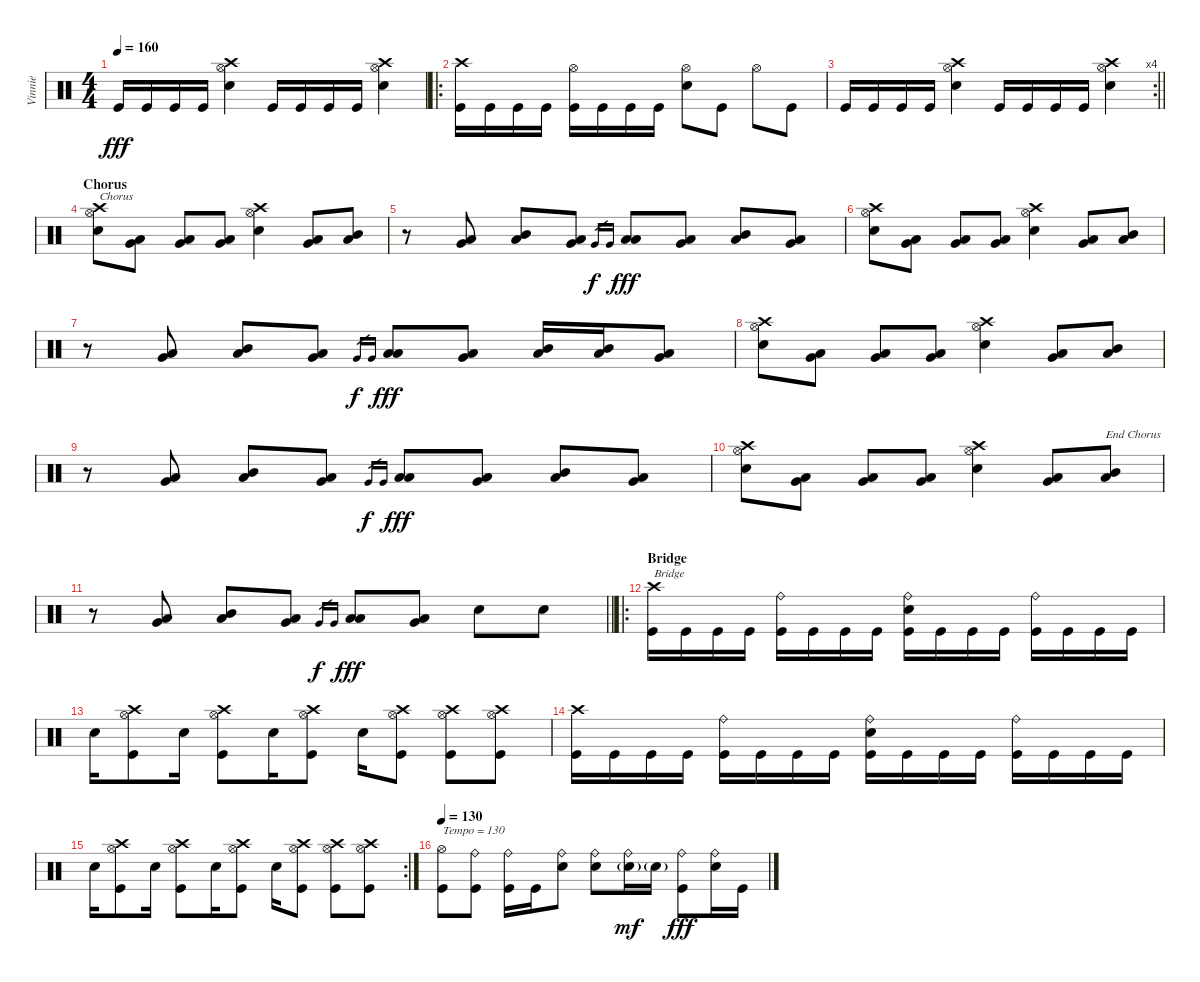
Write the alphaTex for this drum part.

\track ("Vinnie" "Vinnie") {instrument percussion}
\staff {score}
\articulation defaults
\ts (4 4)
\tempo 160
\clef neutral
\ks c "Kick (hit)".16{dy fff} "Kick (hit)".16 "Kick (hit)".16 "Kick (hit)".16
("Electric Snare (hit)" "Crash high (hit)" "Hi-Hat (open)").4 "Kick (hit)".16 "Kick (hit)".16 "Kick (hit)".16 "Kick (hit)".16 ("Electric Snare (hit)" "Crash high (hit)" "Hi-Hat (open)").4 |
\ro
("Kick (hit)" "Crash high (hit)").16 "Kick (hit)".16 "Kick (hit)".16 "Kick (hit)".16 ("Kick (hit)" "Hi-Hat (open)").16 "Kick (hit)".16 "Kick (hit)".16 "Kick (hit)".16 ("Electric Snare (hit)" "Hi-Hat (open)").8 "Kick (hit)".8 "Hi-Hat (open)".8 "Kick (hit)".8 |
\rc 4
\barLineRight lightlight "Kick (hit)".16 "Kick (hit)".16 "Kick (hit)".16 "Kick (hit)".16
("Electric Snare (hit)" "Crash high (hit)" "Hi-Hat (open)").4 "Kick (hit)".16 "Kick (hit)".16 "Kick (hit)".16 "Kick (hit)".16 ("Electric Snare (hit)" "Crash high (hit)" "Hi-Hat (open)").4 |
\section ("" "Chorus")
("Electric Snare (hit)" "Crash high (hit)" "Hi-Hat (open)").8{txt "Chorus"} ("Low Tom (hit)" "Very Low Tom (hit)").8 ("Low Tom (hit)" "Very Low Tom (hit)").8 ("Low Tom (hit)" "Very Low Tom (hit)").8 ("Electric Snare (hit)" "Crash high (hit)" "Hi-Hat (open)").4 ("Low Tom (hit)" "Very Low Tom (hit)").8 ("Mid Tom (hit)" "Low Tom (hit)").8 |
r.8 ("Low Tom (hit)" "Very Low Tom (hit)").8 ("Mid Tom (hit)" "Low Tom (hit)").8 ("Low Tom (hit)" "Very Low Tom (hit)").8 "Very Low Tom (hit)".16{gr dy f} "Very Low Tom (hit)".16{gr} ("Low Tom (hit)" "Low Tom (hit)").8{dy fff} ("Low Tom (hit)" "Very Low Tom (hit)").8 ("Mid Tom (hit)" "Low Tom (hit)").8 ("Low Tom (hit)" "Very Low Tom (hit)").8 |
("Electric Snare (hit)" "Crash high (hit)" "Hi-Hat (open)").8 ("Low Tom (hit)" "Very Low Tom (hit)").8 ("Low Tom (hit)" "Very Low Tom (hit)").8 ("Low Tom (hit)" "Very Low Tom (hit)").8 ("Electric Snare (hit)" "Crash high (hit)" "Hi-Hat (open)").4 ("Low Tom (hit)" "Very Low Tom (hit)").8 ("Mid Tom (hit)" "Low Tom (hit)").8 |
r.8 ("Low Tom (hit)" "Very Low Tom (hit)").8 ("Mid Tom (hit)" "Low Tom (hit)").8 ("Low Tom (hit)" "Very Low Tom (hit)").8 "Very Low Tom (hit)".16{gr dy f} "Very Low Tom (hit)".16{gr} ("Low Tom (hit)" "Low Tom (hit)").8{dy fff} ("Low Tom (hit)" "Very Low Tom (hit)").8 ("Mid Tom (hit)" "Low Tom (hit)").16 ("Mid Tom (hit)" "Low Tom (hit)").16 ("Low Tom (hit)" "Very Low Tom (hit)").8 |
("Electric Snare (hit)" "Crash high (hit)" "Hi-Hat (open)").8 ("Low Tom (hit)" "Very Low Tom (hit)").8 ("Low Tom (hit)" "Very Low Tom (hit)").8 ("Low Tom (hit)" "Very Low Tom (hit)").8 ("Electric Snare (hit)" "Crash high (hit)" "Hi-Hat (open)").4 ("Low Tom (hit)" "Very Low Tom (hit)").8 ("Mid Tom (hit)" "Low Tom (hit)").8 |
r.8 ("Low Tom (hit)" "Very Low Tom (hit)").8 ("Mid Tom (hit)" "Low Tom (hit)").8 ("Low Tom (hit)" "Very Low Tom (hit)").8 "Very Low Tom (hit)".16{gr dy f} "Very Low Tom (hit)".16{gr} ("Low Tom (hit)" "Low Tom (hit)").8{dy fff} ("Low Tom (hit)" "Very Low Tom (hit)").8 ("Mid Tom (hit)" "Low Tom (hit)").8 ("Low Tom (hit)" "Very Low Tom (hit)").8 |
("Electric Snare (hit)" "Crash high (hit)" "Hi-Hat (open)").8 ("Low Tom (hit)" "Very Low Tom (hit)").8 ("Low Tom (hit)" "Very Low Tom (hit)").8 ("Low Tom (hit)" "Very Low Tom (hit)").8 ("Electric Snare (hit)" "Crash high (hit)" "Hi-Hat (open)").4 ("Low Tom (hit)" "Very Low Tom (hit)").8 ("Mid Tom (hit)" "Low Tom (hit)").8{txt "End Chorus"} |
\barLineRight lightlight
r.8 ("Low Tom (hit)" "Very Low Tom (hit)").8 ("Mid Tom (hit)" "Low Tom (hit)").8 ("Low Tom (hit)" "Very Low Tom (hit)").8 "Very Low Tom (hit)".16{gr dy f} "Very Low Tom (hit)".16{gr} ("Low Tom (hit)" "Low Tom (hit)").8{dy fff} ("Low Tom (hit)" "Very Low Tom (hit)").8 "Electric Snare (hit)".8 "Electric Snare (hit)".8 |
\ro
\section ("" "Bridge")
("Kick (hit)" "Crash high (hit)").16{txt "Bridge"} "Kick (hit)".16 "Kick (hit)".16 "Kick (hit)".16 ("Kick (hit)" "Ride (bell)").16 "Kick (hit)".16 "Kick (hit)".16 "Kick (hit)".16 ("Electric Snare (hit)" "Kick (hit)" "Ride (bell)").16 "Kick (hit)".16 "Kick (hit)".16 "Kick (hit)".16 ("Kick (hit)" "Ride (bell)").16 "Kick (hit)".16 "Kick (hit)".16 "Kick (hit)".16 |
"Electric Snare (hit)".16 ("Kick (hit)" "Crash high (hit)" "Hi-Hat (open)").8 "Electric Snare (hit)".16 ("Kick (hit)" "Crash high (hit)" "Hi-Hat (open)").8 "Electric Snare (hit)".16 ("Kick (hit)" "Crash high (hit)" "Hi-Hat (open)").8 "Electric Snare (hit)".16 ("Kick (hit)" "Crash high (hit)" "Hi-Hat (open)").8 ("Kick (hit)" "Crash high (hit)" "Hi-Hat (open)").8 ("Kick (hit)" "Crash high (hit)" "Hi-Hat (open)").8 |
("Kick (hit)" "Crash high (hit)").16 "Kick (hit)".16 "Kick (hit)".16 "Kick (hit)".16 ("Kick (hit)" "Ride (bell)").16 "Kick (hit)".16 "Kick (hit)".16 "Kick (hit)".16 ("Electric Snare (hit)" "Kick (hit)" "Ride (bell)").16 "Kick (hit)".16 "Kick (hit)".16 "Kick (hit)".16 ("Kick (hit)" "Ride (bell)").16 "Kick (hit)".16 "Kick (hit)".16 "Kick (hit)".16 |
\rc 2 "Electric Snare (hit)".16
("Kick (hit)" "Crash high (hit)" "Hi-Hat (open)").8 "Electric Snare (hit)".16 ("Kick (hit)" "Crash high (hit)" "Hi-Hat (open)").8 "Electric Snare (hit)".16 ("Kick (hit)" "Crash high (hit)" "Hi-Hat (open)").8 "Electric Snare (hit)".16 ("Kick (hit)" "Crash high (hit)" "Hi-Hat (open)").8 ("Kick (hit)" "Crash high (hit)" "Hi-Hat (open)").8 ("Kick (hit)" "Crash high (hit)" "Hi-Hat (open)").8 |
\tempo 130
("Kick (hit)" "Hi-Hat (open)").8{txt "Tempo = 130"} ("Kick (hit)" "Ride (bell)").8 ("Kick (hit)" "Ride (bell)").16 "Kick (hit)".16 ("Electric Snare (hit)" "Ride (bell)").8 ("Electric Snare (hit)" "Ride (bell)").8 ("Electric Snare (hit)"{g} "Ride (bell)").16{dy mf} "Electric Snare (hit)"{g}.16 ("Kick (hit)" "Ride (bell)").8{dy fff} ("Electric Snare (hit)" "Ride (bell)").16 "Kick (hit)".16
